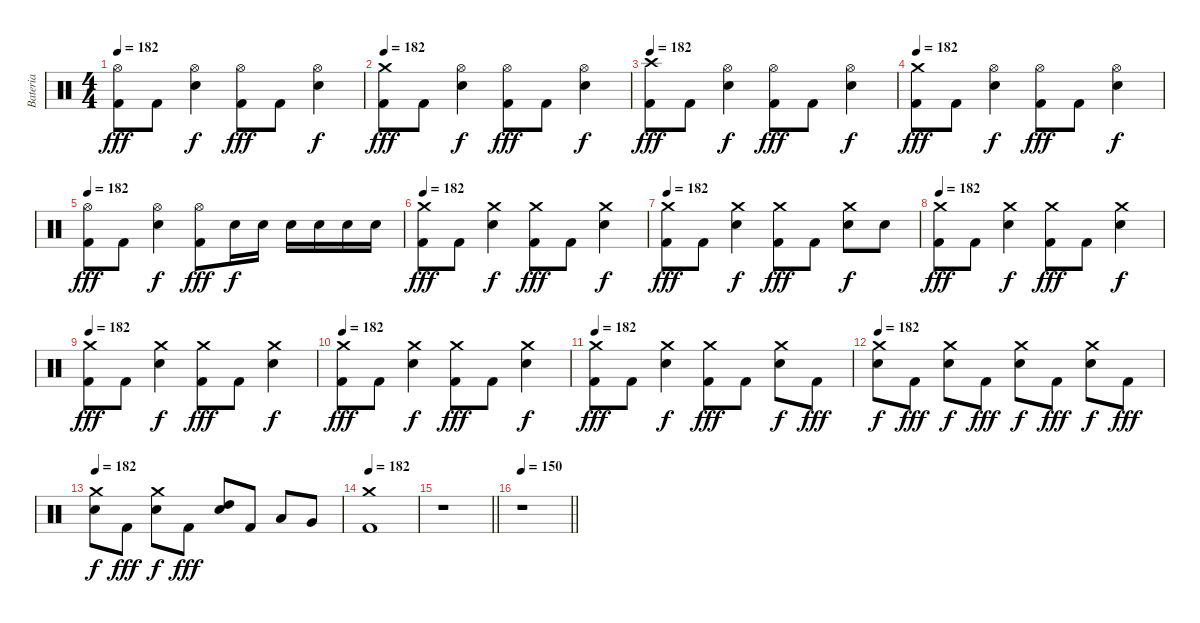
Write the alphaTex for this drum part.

\track ("Bateria" "Bateria") {instrument percussion}
\staff {score}
\articulation defaults
\ts (4 4)
\tempo 182
\clef neutral
\ks c
("Hi-Hat (open)" "Kick (hit) 2").8{dy fff} "Kick (hit) 2".8 ("Hi-Hat (open)" "Electric Snare (hit)").4{dy f} ("Hi-Hat (open)" "Kick (hit) 2").8{dy fff} "Kick (hit) 2".8 ("Hi-Hat (open)" "Electric Snare (hit)").4{dy f} |
\tempo 182
("Crash medium (hit)" "Kick (hit) 2").8{dy fff} "Kick (hit) 2".8 ("Hi-Hat (open)" "Electric Snare (hit)").4{dy f} ("Hi-Hat (open)" "Kick (hit) 2").8{dy fff} "Kick (hit) 2".8 ("Hi-Hat (open)" "Electric Snare (hit)").4{dy f} |
\tempo 182
("Crash high (hit)" "Kick (hit) 2").8{dy fff} "Kick (hit) 2".8 ("Hi-Hat (open)" "Electric Snare (hit)").4{dy f} ("Hi-Hat (open)" "Kick (hit) 2").8{dy fff} "Kick (hit) 2".8 ("Hi-Hat (open)" "Electric Snare (hit)").4{dy f} |
\tempo 182
("Crash medium (hit)" "Kick (hit) 2").8{dy fff} "Kick (hit) 2".8 ("Hi-Hat (open)" "Electric Snare (hit)").4{dy f} ("Hi-Hat (open)" "Kick (hit) 2").8{dy fff} "Kick (hit) 2".8 ("Hi-Hat (open)" "Electric Snare (hit)").4{dy f} |
\tempo 182
("Hi-Hat (open)" "Kick (hit) 2").8{dy fff} "Kick (hit) 2".8 ("Hi-Hat (open)" "Electric Snare (hit)").4{dy f} ("Hi-Hat (open)" "Kick (hit) 2").8{dy fff} "Electric Snare (hit)".16{dy f} "Electric Snare (hit)".16 "Electric Snare (hit)".16 "Electric Snare (hit)".16 "Electric Snare (hit)".16 "Electric Snare (hit)".16 |
\tempo 182
("Crash medium (hit)" "Kick (hit) 2").8{dy fff} "Kick (hit) 2".8 ("Crash medium (hit)" "Electric Snare (hit)").4{dy f} ("Crash medium (hit)" "Kick (hit) 2").8{dy fff} "Kick (hit) 2".8 ("Crash medium (hit)" "Electric Snare (hit)").4{dy f} |
\tempo 182
("Crash medium (hit)" "Kick (hit) 2").8{dy fff} "Kick (hit) 2".8 ("Crash medium (hit)" "Electric Snare (hit)").4{dy f} ("Crash medium (hit)" "Kick (hit) 2").8{dy fff} "Kick (hit) 2".8 ("Crash medium (hit)" "Electric Snare (hit)").8{dy f} "Electric Snare (hit)".8 |
\tempo 182
("Crash medium (hit)" "Kick (hit) 2").8{dy fff} "Kick (hit) 2".8 ("Crash medium (hit)" "Electric Snare (hit)").4{dy f} ("Crash medium (hit)" "Kick (hit) 2").8{dy fff} "Kick (hit) 2".8 ("Crash medium (hit)" "Electric Snare (hit)").4{dy f} |
\tempo 182
("Crash medium (hit)" "Kick (hit) 2").8{dy fff} "Kick (hit) 2".8 ("Crash medium (hit)" "Electric Snare (hit)").4{dy f} ("Crash medium (hit)" "Kick (hit) 2").8{dy fff} "Kick (hit) 2".8 ("Crash medium (hit)" "Electric Snare (hit)").4{dy f} |
\tempo 182
("Crash medium (hit)" "Kick (hit) 2").8{dy fff} "Kick (hit) 2".8 ("Crash medium (hit)" "Electric Snare (hit)").4{dy f} ("Crash medium (hit)" "Kick (hit) 2").8{dy fff} "Kick (hit) 2".8 ("Crash medium (hit)" "Electric Snare (hit)").4{dy f} |
\tempo 182
("Crash medium (hit)" "Kick (hit) 2").8{dy fff} "Kick (hit) 2".8 ("Crash medium (hit)" "Electric Snare (hit)").4{dy f} ("Crash medium (hit)" "Kick (hit) 2").8{dy fff} "Kick (hit) 2".8 ("Crash medium (hit)" "Electric Snare (hit)").8{dy f} "Kick (hit) 2".8{dy fff} |
\tempo 182
("Crash medium (hit)" "Electric Snare (hit)").8{dy f} "Kick (hit) 2".8{dy fff} ("Crash medium (hit)" "Electric Snare (hit)").8{dy f} "Kick (hit) 2".8{dy fff} ("Crash medium (hit)" "Electric Snare (hit)").8{dy f} "Kick (hit) 2".8{dy fff} ("Crash medium (hit)" "Electric Snare (hit)").8{dy f} "Kick (hit) 2".8{dy fff} |
\tempo 182
("Crash medium (hit)" "Electric Snare (hit)").8{dy f} "Kick (hit) 2".8{dy fff} ("Crash medium (hit)" "Electric Snare (hit)").8{dy f} "Kick (hit) 2".8{dy fff} ("High Tom (hit)" "Electric Snare (hit)").8 "Kick (hit) 2".8 "Low Tom (hit)".8 "Very Low Tom (hit)".8 |
\tempo 182
("Crash medium (hit)" "Kick (hit) 2").1 |
\barLineRight lightlight
r.1 |
\tempo 150
\barLineRight lightlight
r.1
